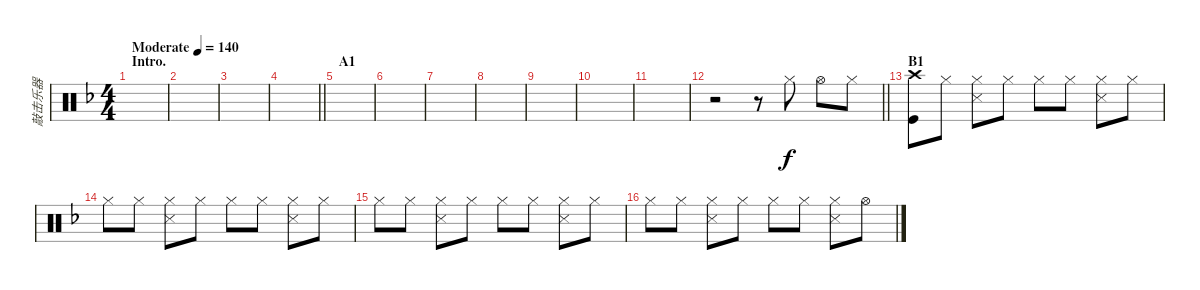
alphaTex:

\track ("敲击乐器" "敲击乐器") {instrument percussion}
\staff {score}
\articulation defaults
\ts (4 4)
\section ("" "Intro.")
\tempo (140 "Moderate")
\clef neutral
\ks f
|
|
|
\barLineRight lightlight
|
\section ("" "A1")
|
|
|
|
|
|
|
\barLineRight lightlight
r.2 r.8 "Hi-Hat (closed)".8 "Hi-Hat (open)".8 "Hi-Hat (closed)".8 |
\section ("" "B1")
("Crash high (hit)" "Kick (hit)").8 "Hi-Hat (closed)".8 ("Hi-Hat (closed)" "Snare (side stick) 3").8 "Hi-Hat (closed)".8 "Hi-Hat (closed)".8 "Hi-Hat (closed)".8 ("Hi-Hat (closed)" "Snare (side stick) 3").8 "Hi-Hat (closed)".8 |
"Hi-Hat (closed)".8 "Hi-Hat (closed)".8 ("Hi-Hat (closed)" "Snare (side stick) 3").8 "Hi-Hat (closed)".8 "Hi-Hat (closed)".8 "Hi-Hat (closed)".8 ("Hi-Hat (closed)" "Snare (side stick) 3").8 "Hi-Hat (closed)".8 |
"Hi-Hat (closed)".8 "Hi-Hat (closed)".8 ("Hi-Hat (closed)" "Snare (side stick) 3").8 "Hi-Hat (closed)".8 "Hi-Hat (closed)".8 "Hi-Hat (closed)".8 ("Hi-Hat (closed)" "Snare (side stick) 3").8 "Hi-Hat (closed)".8 |
"Hi-Hat (closed)".8 "Hi-Hat (closed)".8 ("Hi-Hat (closed)" "Snare (side stick) 3").8 "Hi-Hat (closed)".8 "Hi-Hat (closed)".8 "Hi-Hat (closed)".8 ("Hi-Hat (closed)" "Snare (side stick) 3").8 "Hi-Hat (open)".8
